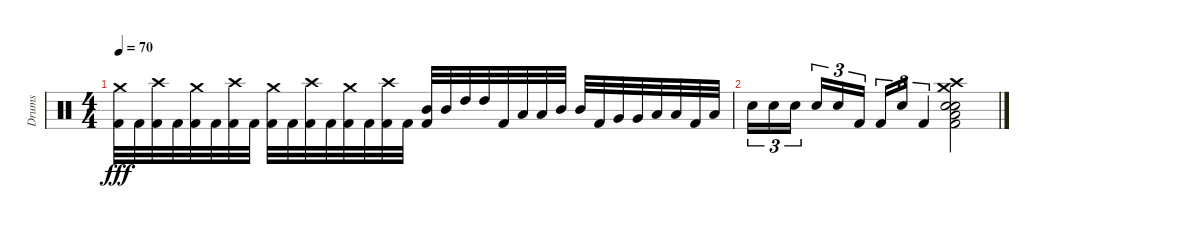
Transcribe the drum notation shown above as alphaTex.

\track ("Drums" "Drums") {instrument percussion}
\staff {score}
\articulation defaults
\ts (4 4)
\tempo 70
\clef neutral
\ks c
("Crash medium (hit)" "Kick (hit) 2").32{dy fff} "Kick (hit) 2".32 ("Crash high (hit)" "Kick (hit) 2").32 "Kick (hit) 2".32 ("Crash medium (hit)" "Kick (hit) 2").32 "Kick (hit) 2".32 ("Crash high (hit)" "Kick (hit) 2").32 "Kick (hit) 2".32 ("Crash medium (hit)" "Kick (hit) 2").32 "Kick (hit) 2".32 ("Crash high (hit)" "Kick (hit) 2").32 "Kick (hit) 2".32 ("Crash medium (hit)" "Kick (hit) 2").32 "Kick (hit) 2".32 ("Crash high (hit)" "Kick (hit) 2").32 "Kick (hit) 2".32 ("Mid Tom (hit)" "Kick (hit) 2").32 "Mid Tom (hit)".32 "High Tom (hit)".32 "High Tom (hit)".32 "Kick (hit) 2".32 "Low Tom (hit)".32 "Low Tom (hit)".32 "Mid Tom (hit)".32 "Mid Tom (hit)".32 "Kick (hit) 2".32 "Very Low Tom (hit)".32 "Very Low Tom (hit)".32 "Low Tom (hit)".32 "Low Tom (hit)".32 "Kick (hit) 2".32 "Low Floor Tom (hit)".32 |
"Electric Snare (hit)".16{tu (3 2)} "Electric Snare (hit)".16{tu (3 2)} "Electric Snare (hit)".16{tu (3 2) beam splitsecondary} "Electric Snare (hit)".16{tu (3 2)} "Electric Snare (hit)".16{tu (3 2)} "Kick (hit) 2".16{tu (3 2)} "Kick (hit) 2".16{tu (3 2)} "Electric Snare (hit)".16{tu (3 2)} "Kick (hit) 2".4{tu (3 2)} ("Crash medium (hit)" "Crash high (hit)" "Electric Snare (hit)" "Snare (hit) 2" "Low Floor Tom (hit)" "Kick (hit) 2").2
